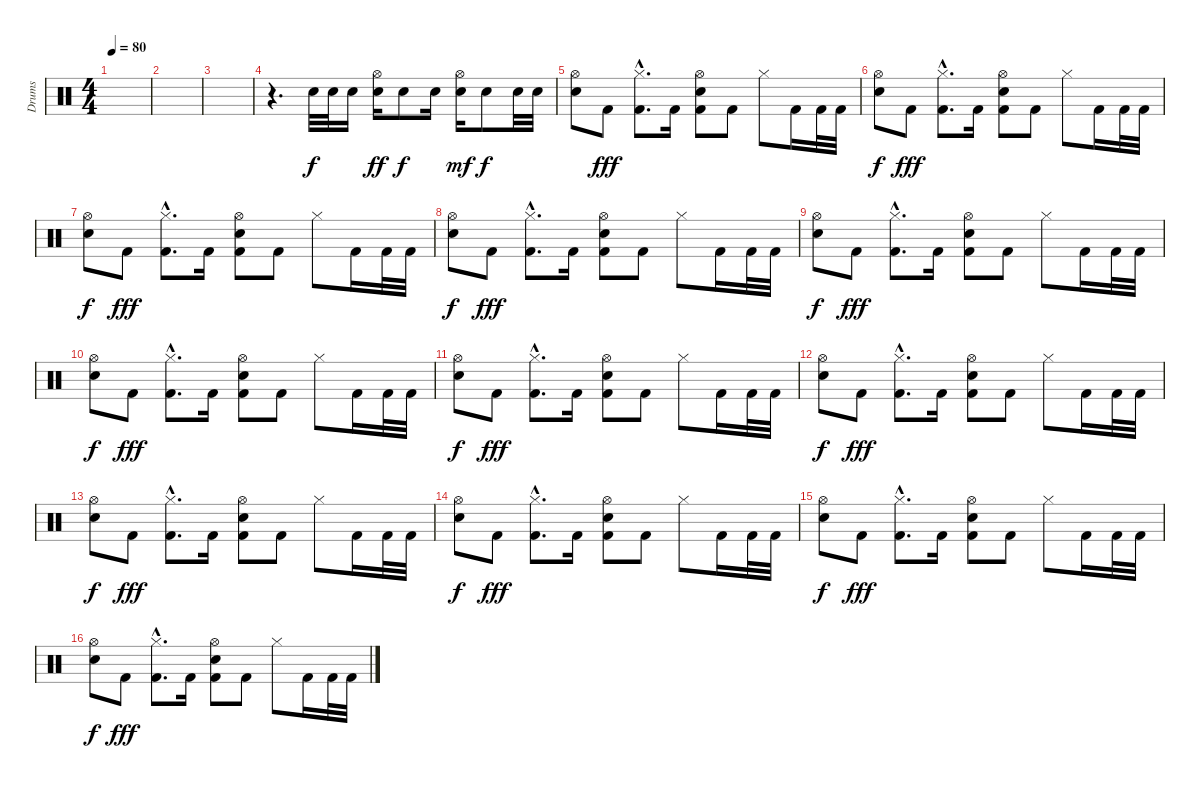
\track ("Drums" "Drums") {instrument percussion}
\staff {score}
\articulation defaults
\ts (4 4)
\tempo 80
\clef neutral
\ks c
|
|
|
r.4{d} "Electric Snare (hit)".32 "Electric Snare (hit)".32 "Electric Snare (hit)".16 ("Electric Snare (hit)" "Hi-Hat (open)").16{dy ff} "Electric Snare (hit)".8{dy f} "Electric Snare (hit)".16 ("Electric Snare (hit)" "Hi-Hat (open)").16{dy mf} "Electric Snare (hit)".8{dy f} "Electric Snare (hit)".32 "Electric Snare (hit)".32 |
("Hi-Hat (open)" "Electric Snare (hit)").8 "Kick (hit) 2".8{dy fff} ("Hi-Hat (closed)"{hac} "Kick (hit) 2"{hac}).8{d} "Kick (hit) 2".16 ("Hi-Hat (open)" "Kick (hit) 2" "Snare (hit) 2").8 "Kick (hit) 2".8 "Hi-Hat (closed)".8 "Kick (hit) 2".16 "Kick (hit) 2".32 "Kick (hit) 2".32 |
("Hi-Hat (open)" "Electric Snare (hit)").8{dy f} "Kick (hit) 2".8{dy fff} ("Hi-Hat (closed)"{hac} "Kick (hit) 2"{hac}).8{d} "Kick (hit) 2".16 ("Hi-Hat (open)" "Kick (hit) 2" "Snare (hit) 2").8 "Kick (hit) 2".8 "Hi-Hat (closed)".8 "Kick (hit) 2".16 "Kick (hit) 2".32 "Kick (hit) 2".32 |
("Hi-Hat (open)" "Electric Snare (hit)").8{dy f} "Kick (hit) 2".8{dy fff} ("Hi-Hat (closed)"{hac} "Kick (hit) 2"{hac}).8{d} "Kick (hit) 2".16 ("Hi-Hat (open)" "Kick (hit) 2" "Snare (hit) 2").8 "Kick (hit) 2".8 "Hi-Hat (closed)".8 "Kick (hit) 2".16 "Kick (hit) 2".32 "Kick (hit) 2".32 |
("Hi-Hat (open)" "Electric Snare (hit)").8{dy f} "Kick (hit) 2".8{dy fff} ("Hi-Hat (closed)"{hac} "Kick (hit) 2"{hac}).8{d} "Kick (hit) 2".16 ("Hi-Hat (open)" "Kick (hit) 2" "Snare (hit) 2").8 "Kick (hit) 2".8 "Hi-Hat (closed)".8 "Kick (hit) 2".16 "Kick (hit) 2".32 "Kick (hit) 2".32 |
("Hi-Hat (open)" "Electric Snare (hit)").8{dy f} "Kick (hit) 2".8{dy fff} ("Hi-Hat (closed)"{hac} "Kick (hit) 2"{hac}).8{d} "Kick (hit) 2".16 ("Hi-Hat (open)" "Kick (hit) 2" "Snare (hit) 2").8 "Kick (hit) 2".8 "Hi-Hat (closed)".8 "Kick (hit) 2".16 "Kick (hit) 2".32 "Kick (hit) 2".32 |
("Hi-Hat (open)" "Electric Snare (hit)").8{dy f} "Kick (hit) 2".8{dy fff} ("Hi-Hat (closed)"{hac} "Kick (hit) 2"{hac}).8{d} "Kick (hit) 2".16 ("Hi-Hat (open)" "Kick (hit) 2" "Snare (hit) 2").8 "Kick (hit) 2".8 "Hi-Hat (closed)".8 "Kick (hit) 2".16 "Kick (hit) 2".32 "Kick (hit) 2".32 |
("Hi-Hat (open)" "Electric Snare (hit)").8{dy f} "Kick (hit) 2".8{dy fff} ("Hi-Hat (closed)"{hac} "Kick (hit) 2"{hac}).8{d} "Kick (hit) 2".16 ("Hi-Hat (open)" "Kick (hit) 2" "Snare (hit) 2").8 "Kick (hit) 2".8 "Hi-Hat (closed)".8 "Kick (hit) 2".16 "Kick (hit) 2".32 "Kick (hit) 2".32 |
("Hi-Hat (open)" "Electric Snare (hit)").8{dy f} "Kick (hit) 2".8{dy fff} ("Hi-Hat (closed)"{hac} "Kick (hit) 2"{hac}).8{d} "Kick (hit) 2".16 ("Hi-Hat (open)" "Kick (hit) 2" "Snare (hit) 2").8 "Kick (hit) 2".8 "Hi-Hat (closed)".8 "Kick (hit) 2".16 "Kick (hit) 2".32 "Kick (hit) 2".32 |
("Hi-Hat (open)" "Electric Snare (hit)").8{dy f} "Kick (hit) 2".8{dy fff} ("Hi-Hat (closed)"{hac} "Kick (hit) 2"{hac}).8{d} "Kick (hit) 2".16 ("Hi-Hat (open)" "Kick (hit) 2" "Snare (hit) 2").8 "Kick (hit) 2".8 "Hi-Hat (closed)".8 "Kick (hit) 2".16 "Kick (hit) 2".32 "Kick (hit) 2".32 |
("Hi-Hat (open)" "Electric Snare (hit)").8{dy f} "Kick (hit) 2".8{dy fff} ("Hi-Hat (closed)"{hac} "Kick (hit) 2"{hac}).8{d} "Kick (hit) 2".16 ("Hi-Hat (open)" "Kick (hit) 2" "Snare (hit) 2").8 "Kick (hit) 2".8 "Hi-Hat (closed)".8 "Kick (hit) 2".16 "Kick (hit) 2".32 "Kick (hit) 2".32 |
("Hi-Hat (open)" "Electric Snare (hit)").8{dy f} "Kick (hit) 2".8{dy fff} ("Hi-Hat (closed)"{hac} "Kick (hit) 2"{hac}).8{d} "Kick (hit) 2".16 ("Hi-Hat (open)" "Kick (hit) 2" "Snare (hit) 2").8 "Kick (hit) 2".8 "Hi-Hat (closed)".8 "Kick (hit) 2".16 "Kick (hit) 2".32 "Kick (hit) 2".32 |
("Hi-Hat (open)" "Electric Snare (hit)").8{dy f} "Kick (hit) 2".8{dy fff} ("Hi-Hat (closed)"{hac} "Kick (hit) 2"{hac}).8{d} "Kick (hit) 2".16 ("Hi-Hat (open)" "Kick (hit) 2" "Snare (hit) 2").8 "Kick (hit) 2".8 "Hi-Hat (closed)".8 "Kick (hit) 2".16 "Kick (hit) 2".32 "Kick (hit) 2".32
